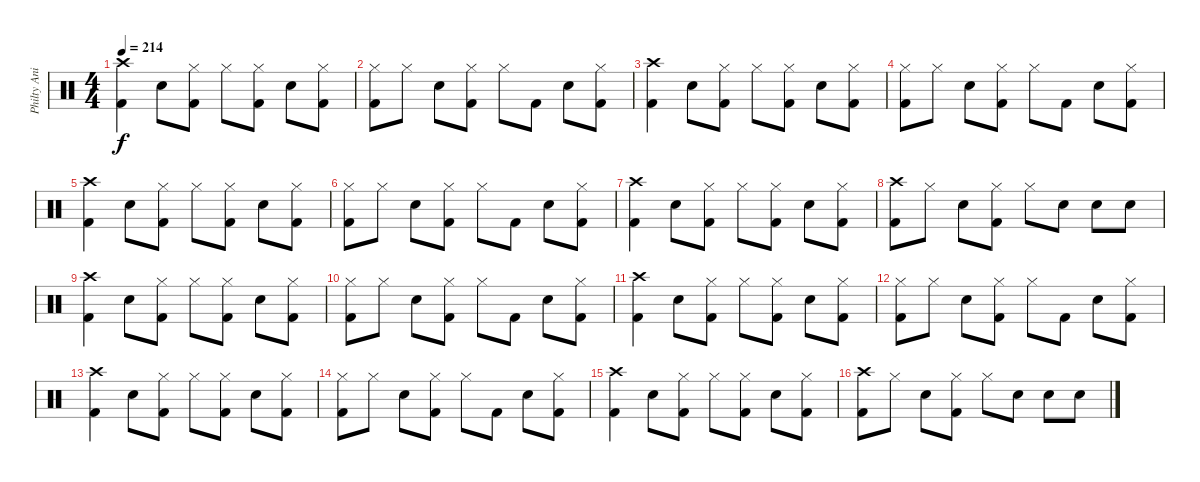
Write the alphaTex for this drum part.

\track ("Philty Animal" "Philty Ani") {instrument percussion}
\staff {score}
\articulation defaults
\ts (4 4)
\tempo 214
\clef neutral
\ks c
("Kick (hit) 2" "Crash high (hit)").4{dy f} "Snare (hit) 2".8 ("Kick (hit) 2" "Hi-Hat (closed)").8 "Hi-Hat (closed)".8 ("Kick (hit) 2" "Hi-Hat (closed)").8 "Snare (hit) 2".8 ("Kick (hit) 2" "Hi-Hat (closed)").8 |
("Kick (hit) 2" "Hi-Hat (closed)").8 "Hi-Hat (closed)".8 "Snare (hit) 2".8 ("Hi-Hat (closed)" "Kick (hit) 2").8 "Hi-Hat (closed)".8 "Kick (hit) 2".8 "Snare (hit) 2".8 ("Kick (hit) 2" "Hi-Hat (closed)").8 |
("Kick (hit) 2" "Crash high (hit)").4 "Snare (hit) 2".8 ("Kick (hit) 2" "Hi-Hat (closed)").8 "Hi-Hat (closed)".8 ("Kick (hit) 2" "Hi-Hat (closed)").8 "Snare (hit) 2".8 ("Kick (hit) 2" "Hi-Hat (closed)").8 |
("Kick (hit) 2" "Hi-Hat (closed)").8 "Hi-Hat (closed)".8 "Snare (hit) 2".8 ("Hi-Hat (closed)" "Kick (hit) 2").8 "Hi-Hat (closed)".8 "Kick (hit) 2".8 "Snare (hit) 2".8 ("Kick (hit) 2" "Hi-Hat (closed)").8 |
("Kick (hit) 2" "Crash high (hit)").4 "Snare (hit) 2".8 ("Kick (hit) 2" "Hi-Hat (closed)").8 "Hi-Hat (closed)".8 ("Kick (hit) 2" "Hi-Hat (closed)").8 "Snare (hit) 2".8 ("Kick (hit) 2" "Hi-Hat (closed)").8 |
("Kick (hit) 2" "Hi-Hat (closed)").8 "Hi-Hat (closed)".8 "Snare (hit) 2".8 ("Hi-Hat (closed)" "Kick (hit) 2").8 "Hi-Hat (closed)".8 "Kick (hit) 2".8 "Snare (hit) 2".8 ("Kick (hit) 2" "Hi-Hat (closed)").8 |
("Kick (hit) 2" "Crash high (hit)").4 "Snare (hit) 2".8 ("Kick (hit) 2" "Hi-Hat (closed)").8 "Hi-Hat (closed)".8 ("Kick (hit) 2" "Hi-Hat (closed)").8 "Snare (hit) 2".8 ("Kick (hit) 2" "Hi-Hat (closed)").8 |
("Crash high (hit)" "Kick (hit) 2").8 "Hi-Hat (closed)".8 "Snare (hit) 2".8 ("Hi-Hat (closed)" "Kick (hit) 2").8 "Hi-Hat (closed)".8 "Snare (hit) 2".8 "Snare (hit) 2".8 "Snare (hit) 2".8 |
("Kick (hit) 2" "Crash high (hit)").4 "Snare (hit) 2".8 ("Kick (hit) 2" "Hi-Hat (closed)").8 "Hi-Hat (closed)".8 ("Kick (hit) 2" "Hi-Hat (closed)").8 "Snare (hit) 2".8 ("Kick (hit) 2" "Hi-Hat (closed)").8 |
("Kick (hit) 2" "Hi-Hat (closed)").8 "Hi-Hat (closed)".8 "Snare (hit) 2".8 ("Hi-Hat (closed)" "Kick (hit) 2").8 "Hi-Hat (closed)".8 "Kick (hit) 2".8 "Snare (hit) 2".8 ("Kick (hit) 2" "Hi-Hat (closed)").8 |
("Kick (hit) 2" "Crash high (hit)").4 "Snare (hit) 2".8 ("Kick (hit) 2" "Hi-Hat (closed)").8 "Hi-Hat (closed)".8 ("Kick (hit) 2" "Hi-Hat (closed)").8 "Snare (hit) 2".8 ("Kick (hit) 2" "Hi-Hat (closed)").8 |
("Kick (hit) 2" "Hi-Hat (closed)").8 "Hi-Hat (closed)".8 "Snare (hit) 2".8 ("Hi-Hat (closed)" "Kick (hit) 2").8 "Hi-Hat (closed)".8 "Kick (hit) 2".8 "Snare (hit) 2".8 ("Kick (hit) 2" "Hi-Hat (closed)").8 |
("Kick (hit) 2" "Crash high (hit)").4 "Snare (hit) 2".8 ("Kick (hit) 2" "Hi-Hat (closed)").8 "Hi-Hat (closed)".8 ("Kick (hit) 2" "Hi-Hat (closed)").8 "Snare (hit) 2".8 ("Kick (hit) 2" "Hi-Hat (closed)").8 |
("Kick (hit) 2" "Hi-Hat (closed)").8 "Hi-Hat (closed)".8 "Snare (hit) 2".8 ("Hi-Hat (closed)" "Kick (hit) 2").8 "Hi-Hat (closed)".8 "Kick (hit) 2".8 "Snare (hit) 2".8 ("Kick (hit) 2" "Hi-Hat (closed)").8 |
("Kick (hit) 2" "Crash high (hit)").4 "Snare (hit) 2".8 ("Kick (hit) 2" "Hi-Hat (closed)").8 "Hi-Hat (closed)".8 ("Kick (hit) 2" "Hi-Hat (closed)").8 "Snare (hit) 2".8 ("Kick (hit) 2" "Hi-Hat (closed)").8 |
("Crash high (hit)" "Kick (hit) 2").8 "Hi-Hat (closed)".8 "Snare (hit) 2".8 ("Hi-Hat (closed)" "Kick (hit) 2").8 "Hi-Hat (closed)".8 "Snare (hit) 2".8 "Snare (hit) 2".8 "Snare (hit) 2".8
